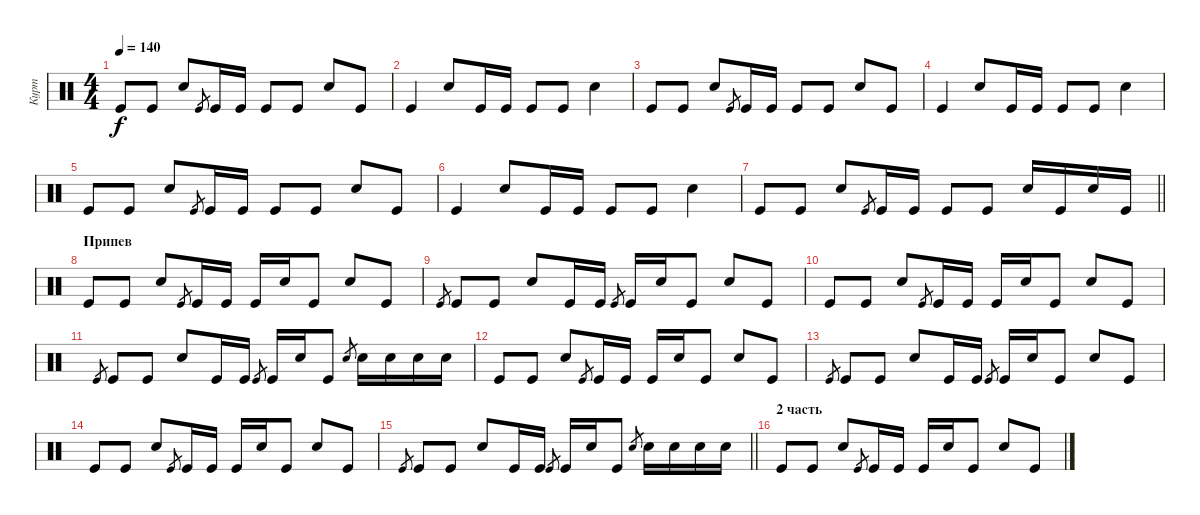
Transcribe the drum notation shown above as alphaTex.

\track ("Курт" "Курт") {instrument percussion}
\staff {score}
\articulation defaults
\ts (4 4)
\tempo 140
\clef neutral
\ks c "Kick (hit)".8{dy f} "Kick (hit)".8 "Snare (hit) 2".8 "Kick (hit)".8{gr} "Kick (hit)".16 "Kick (hit)".16 "Kick (hit)".8 "Kick (hit)".8 "Snare (hit) 2".8 "Kick (hit)".8
|
"Kick (hit)".4 "Snare (hit) 2".8 "Kick (hit)".16 "Kick (hit)".16 "Kick (hit)".8 "Kick (hit)".8 "Snare (hit) 2".4 |
"Kick (hit)".8 "Kick (hit)".8 "Snare (hit) 2".8 "Kick (hit)".8{gr} "Kick (hit)".16 "Kick (hit)".16 "Kick (hit)".8 "Kick (hit)".8 "Snare (hit) 2".8 "Kick (hit)".8 |
"Kick (hit)".4 "Snare (hit) 2".8 "Kick (hit)".16 "Kick (hit)".16 "Kick (hit)".8 "Kick (hit)".8 "Snare (hit) 2".4 |
"Kick (hit)".8 "Kick (hit)".8 "Snare (hit) 2".8 "Kick (hit)".8{gr} "Kick (hit)".16 "Kick (hit)".16 "Kick (hit)".8 "Kick (hit)".8 "Snare (hit) 2".8 "Kick (hit)".8 |
"Kick (hit)".4 "Snare (hit) 2".8 "Kick (hit)".16 "Kick (hit)".16 "Kick (hit)".8 "Kick (hit)".8 "Snare (hit) 2".4 |
\barLineRight lightlight "Kick (hit)".8 "Kick (hit)".8 "Snare (hit) 2".8 "Kick (hit)".8{gr} "Kick (hit)".16 "Kick (hit)".16 "Kick (hit)".8 "Kick (hit)".8 "Snare (hit) 2".16 "Kick (hit)".16 "Snare (hit) 2".16 "Kick (hit)".16
|
\section ("" "Припев")
"Kick (hit)".8 "Kick (hit)".8 "Snare (hit) 2".8 "Kick (hit)".8{gr} "Kick (hit)".16 "Kick (hit)".16 "Kick (hit)".16 "Snare (hit) 2".16 "Kick (hit)".8 "Snare (hit) 2".8 "Kick (hit)".8 |
"Kick (hit)".8{gr} "Kick (hit)".8 "Kick (hit)".8 "Snare (hit) 2".8 "Kick (hit)".16 "Kick (hit)".16 "Kick (hit)".8{gr} "Kick (hit)".16 "Snare (hit) 2".16 "Kick (hit)".8 "Snare (hit) 2".8 "Kick (hit)".8 |
"Kick (hit)".8 "Kick (hit)".8 "Snare (hit) 2".8 "Kick (hit)".8{gr} "Kick (hit)".16 "Kick (hit)".16 "Kick (hit)".16 "Snare (hit) 2".16 "Kick (hit)".8 "Snare (hit) 2".8 "Kick (hit)".8 |
"Kick (hit)".8{gr} "Kick (hit)".8 "Kick (hit)".8 "Snare (hit) 2".8 "Kick (hit)".16 "Kick (hit)".16 "Kick (hit)".8{gr} "Kick (hit)".16 "Snare (hit) 2".16 "Kick (hit)".8 "Snare (hit) 2".8{gr} "Snare (hit) 2".16 "Snare (hit) 2".16 "Snare (hit) 2".16 "Snare (hit) 2".16 |
"Kick (hit)".8 "Kick (hit)".8 "Snare (hit) 2".8 "Kick (hit)".8{gr} "Kick (hit)".16 "Kick (hit)".16 "Kick (hit)".16 "Snare (hit) 2".16 "Kick (hit)".8 "Snare (hit) 2".8 "Kick (hit)".8 |
"Kick (hit)".8{gr} "Kick (hit)".8 "Kick (hit)".8 "Snare (hit) 2".8 "Kick (hit)".16 "Kick (hit)".16 "Kick (hit)".8{gr} "Kick (hit)".16 "Snare (hit) 2".16 "Kick (hit)".8 "Snare (hit) 2".8 "Kick (hit)".8 |
"Kick (hit)".8 "Kick (hit)".8 "Snare (hit) 2".8 "Kick (hit)".8{gr} "Kick (hit)".16 "Kick (hit)".16 "Kick (hit)".16 "Snare (hit) 2".16 "Kick (hit)".8 "Snare (hit) 2".8 "Kick (hit)".8 |
\barLineRight lightlight "Kick (hit)".8{gr} "Kick (hit)".8 "Kick (hit)".8 "Snare (hit) 2".8 "Kick (hit)".16 "Kick (hit)".16 "Kick (hit)".8{gr} "Kick (hit)".16 "Snare (hit) 2".16 "Kick (hit)".8 "Snare (hit) 2".8{gr} "Snare (hit) 2".16 "Snare (hit) 2".16 "Snare (hit) 2".16 "Snare (hit) 2".16
|
\section ("" "2 часть")
"Kick (hit)".8 "Kick (hit)".8 "Snare (hit) 2".8 "Kick (hit)".8{gr} "Kick (hit)".16 "Kick (hit)".16 "Kick (hit)".16 "Snare (hit) 2".16 "Kick (hit)".8 "Snare (hit) 2".8 "Kick (hit)".8
